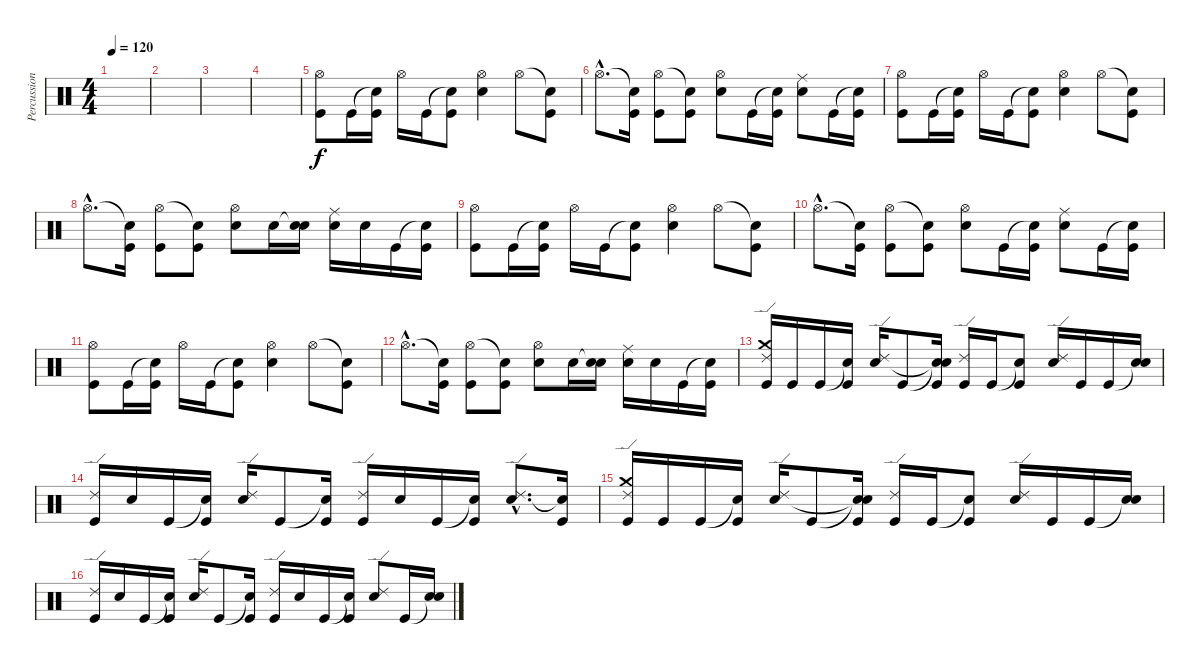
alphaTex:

\track ("Percussion" "Percussion") {instrument percussion}
\staff {score}
\articulation defaults
\ts (4 4)
\tempo 120
\clef neutral
\ks c
|
|
|
|
("Hi-Hat (open)" "Kick (hit)").8 "Kick (hit)".16 ("Snare (hit)"{t} "Kick (hit)").16 "Hi-Hat (open)".16 "Kick (hit)".16 ("Snare (hit)"{t} "Kick (hit)").8 ("Hi-Hat (open)" "Electric Snare (hit)").4 "Hi-Hat (open)".8 ("Snare (hit)"{t} "Kick (hit)").8 |
"Hi-Hat (open)"{hac}.8{d} ("Snare (hit)"{t} "Kick (hit)").16 ("Hi-Hat (open)" "Kick (hit)").8 ("Snare (hit)"{t} "Kick (hit)").8 ("Hi-Hat (open)" "Electric Snare (hit)").8 "Kick (hit)".16 ("Snare (hit)"{t} "Kick (hit)").16 ("Ride (middle)" "Electric Snare (hit)").8 "Kick (hit)".16 ("Snare (hit)"{t} "Kick (hit)").16 |
("Hi-Hat (open)" "Kick (hit)").8 "Kick (hit)".16 ("Snare (hit)"{t} "Kick (hit)").16 "Hi-Hat (open)".16 "Kick (hit)".16 ("Snare (hit)"{t} "Kick (hit)").8 ("Hi-Hat (open)" "Electric Snare (hit)").4 "Hi-Hat (open)".8 ("Snare (hit)"{t} "Kick (hit)").8 |
"Hi-Hat (open)"{hac}.8{d} ("Snare (hit)"{t} "Kick (hit)").16 ("Hi-Hat (open)" "Kick (hit)").8 ("Snare (hit)"{t} "Kick (hit)").8 ("Hi-Hat (open)" "Electric Snare (hit)").8 "Electric Snare (hit)".16 ("Snare (hit)"{t} "Electric Snare (hit)").16 ("Ride (middle)" "Electric Snare (hit)").16 "Electric Snare (hit)".16 "Kick (hit)".16 ("Snare (hit)"{t} "Kick (hit)").16 |
("Hi-Hat (open)" "Kick (hit)").8 "Kick (hit)".16 ("Snare (hit)"{t} "Kick (hit)").16 "Hi-Hat (open)".16 "Kick (hit)".16 ("Snare (hit)"{t} "Kick (hit)").8 ("Hi-Hat (open)" "Electric Snare (hit)").4 "Hi-Hat (open)".8 ("Snare (hit)"{t} "Kick (hit)").8 |
"Hi-Hat (open)"{hac}.8{d} ("Snare (hit)"{t} "Kick (hit)").16 ("Hi-Hat (open)" "Kick (hit)").8 ("Snare (hit)"{t} "Kick (hit)").8 ("Hi-Hat (open)" "Electric Snare (hit)").8 "Kick (hit)".16 ("Snare (hit)"{t} "Kick (hit)").16 ("Ride (middle)" "Electric Snare (hit)").8 "Kick (hit)".16 ("Snare (hit)"{t} "Kick (hit)").16 |
("Hi-Hat (open)" "Kick (hit)").8 "Kick (hit)".16 ("Snare (hit)"{t} "Kick (hit)").16 "Hi-Hat (open)".16 "Kick (hit)".16 ("Snare (hit)"{t} "Kick (hit)").8 ("Hi-Hat (open)" "Electric Snare (hit)").4 "Hi-Hat (open)".8 ("Snare (hit)"{t} "Kick (hit)").8 |
"Hi-Hat (open)"{hac}.8{d} ("Snare (hit)"{t} "Kick (hit)").16 ("Hi-Hat (open)" "Kick (hit)").8 ("Snare (hit)"{t} "Kick (hit)").8 ("Hi-Hat (open)" "Electric Snare (hit)").8 "Electric Snare (hit)".16 ("Snare (hit)"{t} "Electric Snare (hit)").16 ("Ride (middle)" "Electric Snare (hit)").16 "Electric Snare (hit)".16 "Kick (hit)".16 ("Snare (hit)"{t} "Kick (hit)").16 |
("Crash medium (hit)" "Ride (edge) 2" "Kick (hit)").16 "Kick (hit)".16 "Kick (hit)".16 ("Snare (hit)"{t} "Kick (hit)").16 ("Ride (edge) 2" "Electric Snare (hit)").16 "Kick (hit)".8 ("Snare (hit)"{t} "Snare (hit)"{t} "Kick (hit)").16 ("Ride (edge) 2" "Kick (hit)").16 "Kick (hit)".16 ("Snare (hit)"{t} "Kick (hit)").8 ("Ride (edge) 2" "Electric Snare (hit)").16 "Kick (hit)".16 "Kick (hit)".16 ("Snare (hit)"{t} "Electric Snare (hit)").16 |
("Ride (edge) 2" "Kick (hit)").16 "Electric Snare (hit)".16 "Kick (hit)".16 ("Snare (hit)"{t} "Kick (hit)").16 ("Ride (edge) 2" "Electric Snare (hit)").16 "Kick (hit)".8 ("Snare (hit)"{t} "Kick (hit)").16 ("Ride (edge) 2" "Kick (hit)").16 "Electric Snare (hit)".16 "Kick (hit)".16 ("Snare (hit)"{t} "Kick (hit)").16 ("Ride (edge) 2"{hac} "Electric Snare (hit)"{hac}).8{d} ("Snare (hit)"{t} "Kick (hit)").16 |
("Crash medium (hit)" "Ride (edge) 2" "Kick (hit)").16 "Kick (hit)".16 "Kick (hit)".16 ("Snare (hit)"{t} "Kick (hit)").16 ("Ride (edge) 2" "Electric Snare (hit)").16 "Kick (hit)".8 ("Snare (hit)"{t} "Snare (hit)"{t} "Kick (hit)").16 ("Ride (edge) 2" "Kick (hit)").16 "Kick (hit)".16 ("Snare (hit)"{t} "Kick (hit)").8 ("Ride (edge) 2" "Electric Snare (hit)").16 "Kick (hit)".16 "Kick (hit)".16 ("Snare (hit)"{t} "Electric Snare (hit)").16 |
("Ride (edge) 2" "Kick (hit)").16 "Electric Snare (hit)".16 "Kick (hit)".16 ("Snare (hit)"{t} "Kick (hit)").16 ("Ride (edge) 2" "Electric Snare (hit)").16 "Kick (hit)".8 ("Snare (hit)"{t} "Kick (hit)").16 ("Ride (edge) 2" "Kick (hit)").16 "Electric Snare (hit)".16 "Kick (hit)".16 ("Snare (hit)"{t} "Kick (hit)").16 ("Ride (edge) 2" "Electric Snare (hit)").8 "Kick (hit)".16 ("Snare (hit)"{t} "Electric Snare (hit)").16
